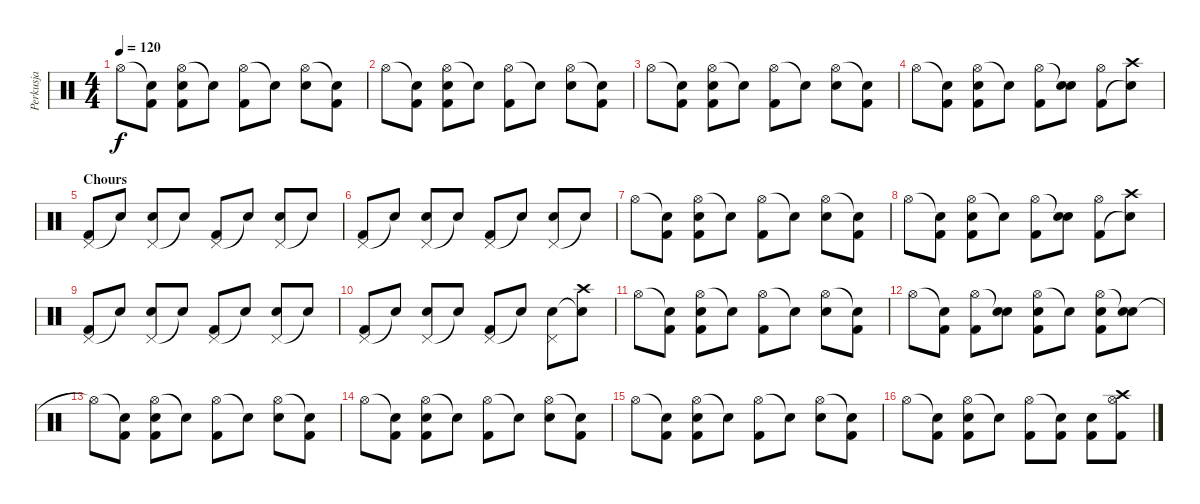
\track ("Perkusja" "Perkusja") {instrument percussion}
\staff {score}
\articulation defaults
\ts (4 4)
\tempo 120
\clef neutral
\ks c "Hi-Hat (open)".8{dy f}
("Snare (hit)"{t} "Kick (hit) 2").8 ("Hi-Hat (open)" "Electric Snare (hit)" "Kick (hit) 2").8 "Snare (hit)"{t}.8 ("Hi-Hat (open)" "Kick (hit) 2").8 "Snare (hit)"{t}.8 ("Hi-Hat (open)" "Electric Snare (hit)").8 ("Snare (hit)"{t} "Kick (hit) 2").8 |
"Hi-Hat (open)".8 ("Snare (hit)"{t} "Kick (hit) 2").8 ("Hi-Hat (open)" "Electric Snare (hit)" "Kick (hit) 2").8 "Snare (hit)"{t}.8 ("Hi-Hat (open)" "Kick (hit) 2").8 "Snare (hit)"{t}.8 ("Hi-Hat (open)" "Electric Snare (hit)").8 ("Snare (hit)"{t} "Kick (hit) 2").8 |
"Hi-Hat (open)".8 ("Snare (hit)"{t} "Kick (hit) 2").8 ("Hi-Hat (open)" "Electric Snare (hit)" "Kick (hit) 2").8 "Snare (hit)"{t}.8 ("Hi-Hat (open)" "Kick (hit) 2").8 "Snare (hit)"{t}.8 ("Hi-Hat (open)" "Electric Snare (hit)").8 ("Snare (hit)"{t} "Kick (hit) 2").8 |
"Hi-Hat (open)".8 ("Snare (hit)"{t} "Kick (hit) 2").8 ("Hi-Hat (open)" "Electric Snare (hit)" "Kick (hit) 2").8 "Snare (hit)"{t}.8 ("Hi-Hat (open)" "Kick (hit) 2").8 ("Snare (hit)"{t} "Electric Snare (hit)").8 ("Hi-Hat (open)" "Kick (hit) 2").8 ("Crash high (hit)" "Snare (hit)"{t}).8 |
\section ("" "Chours")
("Pedal Hi-Hat (hit)" "Kick (hit) 2").8 "Snare (hit)"{t}.8 ("Pedal Hi-Hat (hit)" "Electric Snare (hit)").8 "Snare (hit)"{t}.8 ("Pedal Hi-Hat (hit)" "Kick (hit) 2").8 "Snare (hit)"{t}.8 ("Pedal Hi-Hat (hit)" "Electric Snare (hit)").8 "Snare (hit)"{t}.8 |
("Pedal Hi-Hat (hit)" "Kick (hit) 2").8 "Snare (hit)"{t}.8 ("Pedal Hi-Hat (hit)" "Electric Snare (hit)").8 "Snare (hit)"{t}.8 ("Pedal Hi-Hat (hit)" "Kick (hit) 2").8 "Snare (hit)"{t}.8 ("Pedal Hi-Hat (hit)" "Electric Snare (hit)").8 "Snare (hit)"{t}.8 |
"Hi-Hat (open)".8 ("Snare (hit)"{t} "Kick (hit) 2").8 ("Hi-Hat (open)" "Electric Snare (hit)" "Kick (hit) 2").8 "Snare (hit)"{t}.8 ("Hi-Hat (open)" "Kick (hit) 2").8 "Snare (hit)"{t}.8 ("Hi-Hat (open)" "Electric Snare (hit)").8 ("Snare (hit)"{t} "Kick (hit) 2").8 |
"Hi-Hat (open)".8 ("Snare (hit)"{t} "Kick (hit) 2").8 ("Hi-Hat (open)" "Electric Snare (hit)" "Kick (hit) 2").8 "Snare (hit)"{t}.8 ("Hi-Hat (open)" "Kick (hit) 2").8 ("Snare (hit)"{t} "Electric Snare (hit)").8 ("Hi-Hat (open)" "Kick (hit) 2").8 ("Crash high (hit)" "Snare (hit)"{t}).8 |
("Pedal Hi-Hat (hit)" "Kick (hit) 2").8 "Snare (hit)"{t}.8 ("Pedal Hi-Hat (hit)" "Electric Snare (hit)").8 "Snare (hit)"{t}.8 ("Pedal Hi-Hat (hit)" "Kick (hit) 2").8 "Snare (hit)"{t}.8 ("Pedal Hi-Hat (hit)" "Electric Snare (hit)").8 "Snare (hit)"{t}.8 |
("Pedal Hi-Hat (hit)" "Kick (hit) 2").8 "Snare (hit)"{t}.8 ("Pedal Hi-Hat (hit)" "Electric Snare (hit)").8 "Snare (hit)"{t}.8 ("Pedal Hi-Hat (hit)" "Kick (hit) 2").8 "Snare (hit)"{t}.8 ("Pedal Hi-Hat (hit)" "Electric Snare (hit)").8 ("Crash high (hit)" "Snare (hit)"{t}).8 |
"Hi-Hat (open)".8 ("Snare (hit)"{t} "Kick (hit) 2").8 ("Hi-Hat (open)" "Electric Snare (hit)" "Kick (hit) 2").8 "Snare (hit)"{t}.8 ("Hi-Hat (open)" "Kick (hit) 2").8 "Snare (hit)"{t}.8 ("Hi-Hat (open)" "Electric Snare (hit)").8 ("Snare (hit)"{t} "Kick (hit) 2").8 |
"Hi-Hat (open)".8 ("Snare (hit)"{t} "Kick (hit) 2").8 ("Hi-Hat (open)" "Kick (hit) 2").8 ("Snare (hit)"{t} "Electric Snare (hit)").8 ("Hi-Hat (open)" "Electric Snare (hit)" "Kick (hit) 2").8 "Snare (hit)"{t}.8 ("Hi-Hat (open)" "Electric Snare (hit)" "Kick (hit) 2").8 ("Snare (hit)"{t} "Electric Snare (hit)").8 |
"Hi-Hat (open)"{t}.8 ("Snare (hit)"{t} "Kick (hit) 2").8 ("Hi-Hat (open)" "Electric Snare (hit)" "Kick (hit) 2").8 "Snare (hit)"{t}.8 ("Hi-Hat (open)" "Kick (hit) 2").8 "Snare (hit)"{t}.8 ("Hi-Hat (open)" "Electric Snare (hit)").8 ("Snare (hit)"{t} "Kick (hit) 2").8 |
"Hi-Hat (open)".8 ("Snare (hit)"{t} "Kick (hit) 2").8 ("Hi-Hat (open)" "Electric Snare (hit)" "Kick (hit) 2").8 "Snare (hit)"{t}.8 ("Hi-Hat (open)" "Kick (hit) 2").8 "Snare (hit)"{t}.8 ("Hi-Hat (open)" "Electric Snare (hit)").8 ("Snare (hit)"{t} "Kick (hit) 2").8 |
"Hi-Hat (open)".8 ("Snare (hit)"{t} "Kick (hit) 2").8 ("Hi-Hat (open)" "Electric Snare (hit)" "Kick (hit) 2").8 "Snare (hit)"{t}.8 ("Hi-Hat (open)" "Kick (hit) 2").8 "Snare (hit)"{t}.8 ("Hi-Hat (open)" "Electric Snare (hit)").8 ("Snare (hit)"{t} "Kick (hit) 2").8 |
"Hi-Hat (open)".8 ("Snare (hit)"{t} "Kick (hit) 2").8 ("Hi-Hat (open)" "Electric Snare (hit)" "Kick (hit) 2").8 "Snare (hit)"{t}.8 ("Hi-Hat (open)" "Kick (hit) 2").8 ("Snare (hit)"{t} "Kick (hit) 2").8 ("Electric Snare (hit)" "Kick (hit) 2").8 ("Crash high (hit)" "Hi-Hat (open)" "Kick (hit) 2").8
